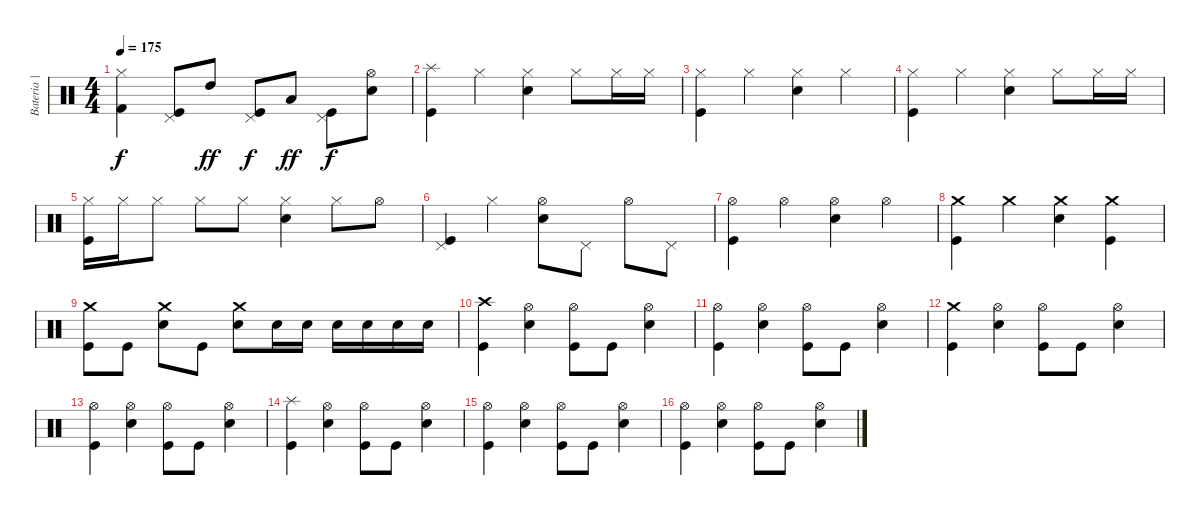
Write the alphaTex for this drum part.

\track ("Bateria | Fabinho" "Bateria | ") {instrument percussion}
\staff {score}
\articulation defaults
\ts (4 4)
\tempo 175
\clef neutral
\ks c
("Hi-Hat (closed)" "Kick (hit) 2").4{dy f} ("Pedal Hi-Hat (hit)" "Kick (hit)").8 "High Tom (hit)".8{dy ff} ("Pedal Hi-Hat (hit)" "Kick (hit)").8{dy f} "Low Tom (hit)".8{dy ff} ("Pedal Hi-Hat (hit)" "Kick (hit)").8{dy f} ("Hi-Hat (open)" "Snare (hit) 2").8 |
("Splash (hit)" "Kick (hit)").4 "Hi-Hat (closed)".4 ("Hi-Hat (closed)" "Snare (hit) 2").4 "Hi-Hat (closed)".8 "Hi-Hat (closed)".16 "Hi-Hat (closed)".16 |
("Hi-Hat (closed)" "Kick (hit)").4 "Hi-Hat (closed)".4 ("Hi-Hat (closed)" "Snare (hit) 2").4 "Hi-Hat (closed)".4 |
("Hi-Hat (closed)" "Kick (hit)").4 "Hi-Hat (closed)".4 ("Hi-Hat (closed)" "Snare (hit) 2").4 "Hi-Hat (closed)".8 "Hi-Hat (closed)".16 "Hi-Hat (closed)".16 |
("Hi-Hat (closed)" "Kick (hit)").16 "Hi-Hat (closed)".16 "Hi-Hat (closed)".8 "Hi-Hat (closed)".8 "Hi-Hat (closed)".8 ("Hi-Hat (closed)" "Snare (hit) 2").4 "Hi-Hat (closed)".8 "Hi-Hat (open)".8 |
("Pedal Hi-Hat (hit)" "Kick (hit)").4 "Hi-Hat (closed)".4 ("Hi-Hat (open)" "Snare (hit) 2").8 "Pedal Hi-Hat (hit)".8 "Hi-Hat (open)".8 "Pedal Hi-Hat (hit)".8 |
("Hi-Hat (open)" "Kick (hit)").4 "Hi-Hat (open)".4 ("Hi-Hat (open)" "Snare (hit) 2").4 "Hi-Hat (open)".4 |
("Crash medium (hit)" "Kick (hit)").4 "Crash medium (hit)".4 ("Crash medium (hit)" "Snare (hit) 2").4 ("Crash medium (hit)" "Kick (hit)").4 |
("Crash medium (hit)" "Kick (hit)").8 "Kick (hit)".8 ("Crash medium (hit)" "Snare (hit) 2").8 "Kick (hit)".8 ("Crash medium (hit)" "Snare (hit) 2").8 "Snare (hit) 2".16 "Snare (hit) 2".16 "Snare (hit) 2".16 "Snare (hit) 2".16 "Snare (hit) 2".16 "Snare (hit) 2".16 |
("Crash high (hit)" "Kick (hit)").4 ("Hi-Hat (open)" "Snare (hit) 2").4 ("Hi-Hat (open)" "Kick (hit)").8 "Kick (hit)".8 ("Hi-Hat (open)" "Snare (hit) 2").4 |
("Hi-Hat (open)" "Kick (hit)").4 ("Hi-Hat (open)" "Snare (hit) 2").4 ("Hi-Hat (open)" "Kick (hit)").8 "Kick (hit)".8 ("Hi-Hat (open)" "Snare (hit) 2").4 |
("Crash medium (hit)" "Kick (hit)").4 ("Hi-Hat (open)" "Snare (hit) 2").4 ("Hi-Hat (open)" "Kick (hit)").8 "Kick (hit)".8 ("Hi-Hat (open)" "Snare (hit) 2").4 |
("Hi-Hat (open)" "Kick (hit)").4 ("Hi-Hat (open)" "Snare (hit) 2").4 ("Hi-Hat (open)" "Kick (hit)").8 "Kick (hit)".8 ("Hi-Hat (open)" "Snare (hit) 2").4 |
("Splash (hit)" "Kick (hit)").4 ("Hi-Hat (open)" "Snare (hit) 2").4 ("Hi-Hat (open)" "Kick (hit)").8 "Kick (hit)".8 ("Hi-Hat (open)" "Snare (hit) 2").4 |
("Hi-Hat (open)" "Kick (hit)").4 ("Hi-Hat (open)" "Snare (hit) 2").4 ("Hi-Hat (open)" "Kick (hit)").8 "Kick (hit)".8 ("Hi-Hat (open)" "Snare (hit) 2").4 |
("Hi-Hat (open)" "Kick (hit)").4 ("Hi-Hat (open)" "Snare (hit) 2").4 ("Hi-Hat (open)" "Kick (hit)").8 "Kick (hit)".8 ("Hi-Hat (open)" "Snare (hit) 2").4
